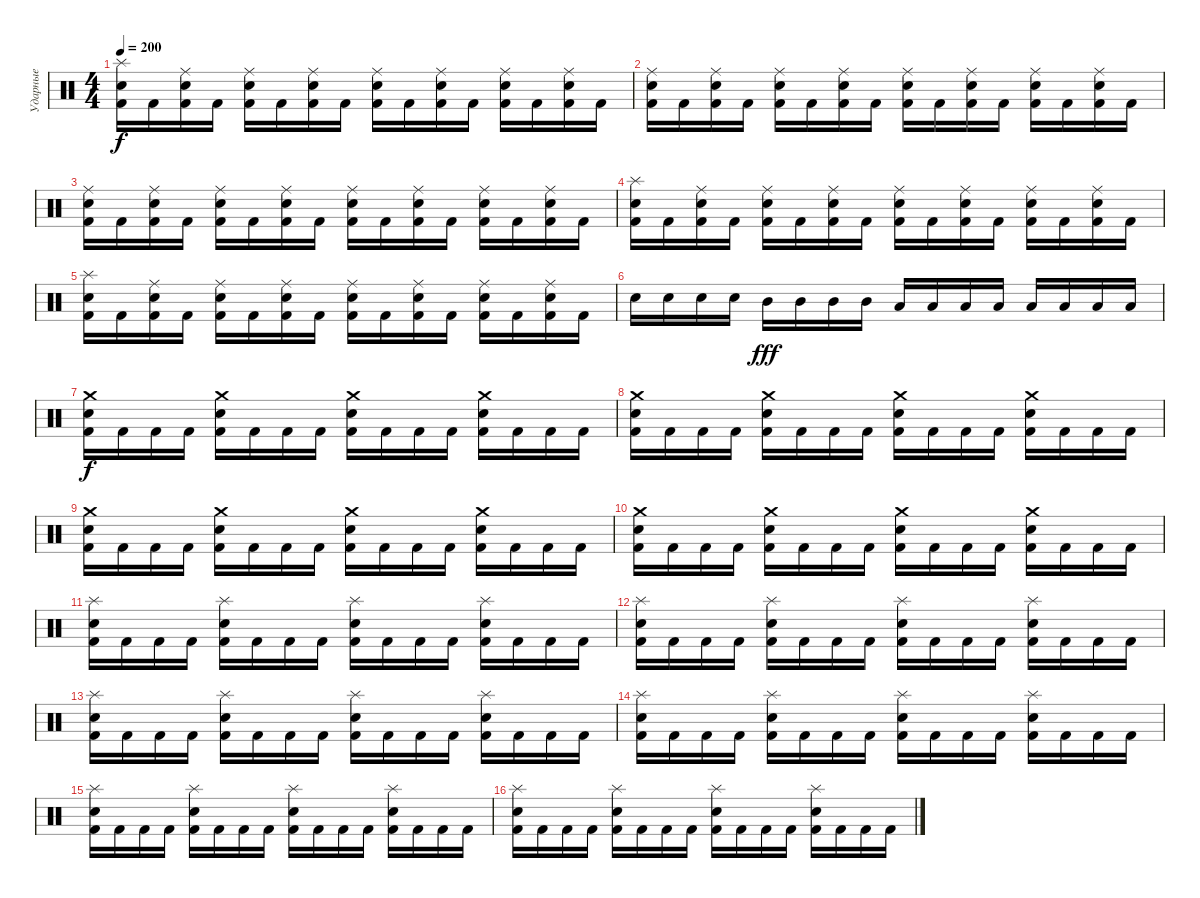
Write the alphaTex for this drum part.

\track ("Ударные" "Ударные") {instrument percussion}
\staff {score}
\articulation defaults
\ts (4 4)
\tempo 200
\clef neutral
\ks c
("Splash (hit)" "Electric Snare (hit)" "Kick (hit) 2").16{dy f} "Kick (hit) 2".16 ("Ride (middle)" "Electric Snare (hit)" "Kick (hit) 2").16 "Kick (hit) 2".16 ("Ride (middle)" "Electric Snare (hit)" "Kick (hit) 2").16 "Kick (hit) 2".16 ("Ride (middle)" "Electric Snare (hit)" "Kick (hit) 2").16 "Kick (hit) 2".16 ("Ride (middle)" "Electric Snare (hit)" "Kick (hit) 2").16 "Kick (hit) 2".16 ("Ride (middle)" "Electric Snare (hit)" "Kick (hit) 2").16 "Kick (hit) 2".16 ("Ride (middle)" "Electric Snare (hit)" "Kick (hit) 2").16 "Kick (hit) 2".16 ("Ride (middle)" "Electric Snare (hit)" "Kick (hit) 2").16 "Kick (hit) 2".16 |
("Ride (middle)" "Electric Snare (hit)" "Kick (hit) 2").16 "Kick (hit) 2".16 ("Ride (middle)" "Electric Snare (hit)" "Kick (hit) 2").16 "Kick (hit) 2".16 ("Ride (middle)" "Electric Snare (hit)" "Kick (hit) 2").16 "Kick (hit) 2".16 ("Ride (middle)" "Electric Snare (hit)" "Kick (hit) 2").16 "Kick (hit) 2".16 ("Ride (middle)" "Electric Snare (hit)" "Kick (hit) 2").16 "Kick (hit) 2".16 ("Ride (middle)" "Electric Snare (hit)" "Kick (hit) 2").16 "Kick (hit) 2".16 ("Ride (middle)" "Electric Snare (hit)" "Kick (hit) 2").16 "Kick (hit) 2".16 ("Ride (middle)" "Electric Snare (hit)" "Kick (hit) 2").16 "Kick (hit) 2".16 |
("Ride (middle)" "Electric Snare (hit)" "Kick (hit) 2").16 "Kick (hit) 2".16 ("Ride (middle)" "Electric Snare (hit)" "Kick (hit) 2").16 "Kick (hit) 2".16 ("Ride (middle)" "Electric Snare (hit)" "Kick (hit) 2").16 "Kick (hit) 2".16 ("Ride (middle)" "Electric Snare (hit)" "Kick (hit) 2").16 "Kick (hit) 2".16 ("Ride (middle)" "Electric Snare (hit)" "Kick (hit) 2").16 "Kick (hit) 2".16 ("Ride (middle)" "Electric Snare (hit)" "Kick (hit) 2").16 "Kick (hit) 2".16 ("Ride (middle)" "Electric Snare (hit)" "Kick (hit) 2").16 "Kick (hit) 2".16 ("Ride (middle)" "Electric Snare (hit)" "Kick (hit) 2").16 "Kick (hit) 2".16 |
("Splash (hit)" "Electric Snare (hit)" "Kick (hit) 2").16 "Kick (hit) 2".16 ("Ride (middle)" "Electric Snare (hit)" "Kick (hit) 2").16 "Kick (hit) 2".16 ("Ride (middle)" "Electric Snare (hit)" "Kick (hit) 2").16 "Kick (hit) 2".16 ("Ride (middle)" "Electric Snare (hit)" "Kick (hit) 2").16 "Kick (hit) 2".16 ("Ride (middle)" "Electric Snare (hit)" "Kick (hit) 2").16 "Kick (hit) 2".16 ("Ride (middle)" "Electric Snare (hit)" "Kick (hit) 2").16 "Kick (hit) 2".16 ("Ride (middle)" "Electric Snare (hit)" "Kick (hit) 2").16 "Kick (hit) 2".16 ("Ride (middle)" "Electric Snare (hit)" "Kick (hit) 2").16 "Kick (hit) 2".16 |
("Splash (hit)" "Electric Snare (hit)" "Kick (hit) 2").16 "Kick (hit) 2".16 ("Ride (middle)" "Electric Snare (hit)" "Kick (hit) 2").16 "Kick (hit) 2".16 ("Ride (middle)" "Electric Snare (hit)" "Kick (hit) 2").16 "Kick (hit) 2".16 ("Ride (middle)" "Electric Snare (hit)" "Kick (hit) 2").16 "Kick (hit) 2".16 ("Ride (middle)" "Electric Snare (hit)" "Kick (hit) 2").16 "Kick (hit) 2".16 ("Ride (middle)" "Electric Snare (hit)" "Kick (hit) 2").16 "Kick (hit) 2".16 ("Ride (middle)" "Electric Snare (hit)" "Kick (hit) 2").16 "Kick (hit) 2".16 ("Ride (middle)" "Electric Snare (hit)" "Kick (hit) 2").16 "Kick (hit) 2".16 |
"Snare (hit) 2".16 "Snare (hit) 2".16 "Snare (hit) 2".16 "Snare (hit) 2".16 "Mid Tom (hit)".16{dy fff} "Mid Tom (hit)".16 "Mid Tom (hit)".16 "Mid Tom (hit)".16 "Low Tom (hit)".16 "Low Tom (hit)".16 "Low Tom (hit)".16 "Low Tom (hit)".16 "Low Floor Tom (hit)".16 "Low Floor Tom (hit)".16 "Low Floor Tom (hit)".16 "Low Floor Tom (hit)".16 |
("Crash medium (hit)" "Electric Snare (hit)" "Kick (hit) 2").16{dy f} "Kick (hit) 2".16 "Kick (hit) 2".16 "Kick (hit) 2".16 ("Crash medium (hit)" "Electric Snare (hit)" "Kick (hit) 2").16 "Kick (hit) 2".16 "Kick (hit) 2".16 "Kick (hit) 2".16 ("Crash medium (hit)" "Electric Snare (hit)" "Kick (hit) 2").16 "Kick (hit) 2".16 "Kick (hit) 2".16 "Kick (hit) 2".16 ("Crash medium (hit)" "Electric Snare (hit)" "Kick (hit) 2").16 "Kick (hit) 2".16 "Kick (hit) 2".16 "Kick (hit) 2".16 |
("Crash medium (hit)" "Electric Snare (hit)" "Kick (hit) 2").16 "Kick (hit) 2".16 "Kick (hit) 2".16 "Kick (hit) 2".16 ("Crash medium (hit)" "Electric Snare (hit)" "Kick (hit) 2").16 "Kick (hit) 2".16 "Kick (hit) 2".16 "Kick (hit) 2".16 ("Crash medium (hit)" "Electric Snare (hit)" "Kick (hit) 2").16 "Kick (hit) 2".16 "Kick (hit) 2".16 "Kick (hit) 2".16 ("Crash medium (hit)" "Electric Snare (hit)" "Kick (hit) 2").16 "Kick (hit) 2".16 "Kick (hit) 2".16 "Kick (hit) 2".16 |
("Crash medium (hit)" "Electric Snare (hit)" "Kick (hit) 2").16 "Kick (hit) 2".16 "Kick (hit) 2".16 "Kick (hit) 2".16 ("Crash medium (hit)" "Electric Snare (hit)" "Kick (hit) 2").16 "Kick (hit) 2".16 "Kick (hit) 2".16 "Kick (hit) 2".16 ("Crash medium (hit)" "Electric Snare (hit)" "Kick (hit) 2").16 "Kick (hit) 2".16 "Kick (hit) 2".16 "Kick (hit) 2".16 ("Crash medium (hit)" "Electric Snare (hit)" "Kick (hit) 2").16 "Kick (hit) 2".16 "Kick (hit) 2".16 "Kick (hit) 2".16 |
("Crash medium (hit)" "Electric Snare (hit)" "Kick (hit) 2").16 "Kick (hit) 2".16 "Kick (hit) 2".16 "Kick (hit) 2".16 ("Crash medium (hit)" "Electric Snare (hit)" "Kick (hit) 2").16 "Kick (hit) 2".16 "Kick (hit) 2".16 "Kick (hit) 2".16 ("Crash medium (hit)" "Electric Snare (hit)" "Kick (hit) 2").16 "Kick (hit) 2".16 "Kick (hit) 2".16 "Kick (hit) 2".16 ("Crash medium (hit)" "Electric Snare (hit)" "Kick (hit) 2").16 "Kick (hit) 2".16 "Kick (hit) 2".16 "Kick (hit) 2".16 |
("Splash (hit)" "Electric Snare (hit)" "Kick (hit) 2").16 "Kick (hit) 2".16 "Kick (hit) 2".16 "Kick (hit) 2".16 ("Splash (hit)" "Electric Snare (hit)" "Kick (hit) 2").16 "Kick (hit) 2".16 "Kick (hit) 2".16 "Kick (hit) 2".16 ("Splash (hit)" "Electric Snare (hit)" "Kick (hit) 2").16 "Kick (hit) 2".16 "Kick (hit) 2".16 "Kick (hit) 2".16 ("Splash (hit)" "Electric Snare (hit)" "Kick (hit) 2").16 "Kick (hit) 2".16 "Kick (hit) 2".16 "Kick (hit) 2".16 |
("Splash (hit)" "Electric Snare (hit)" "Kick (hit) 2").16 "Kick (hit) 2".16 "Kick (hit) 2".16 "Kick (hit) 2".16 ("Splash (hit)" "Electric Snare (hit)" "Kick (hit) 2").16 "Kick (hit) 2".16 "Kick (hit) 2".16 "Kick (hit) 2".16 ("Splash (hit)" "Electric Snare (hit)" "Kick (hit) 2").16 "Kick (hit) 2".16 "Kick (hit) 2".16 "Kick (hit) 2".16 ("Splash (hit)" "Electric Snare (hit)" "Kick (hit) 2").16 "Kick (hit) 2".16 "Kick (hit) 2".16 "Kick (hit) 2".16 |
("Splash (hit)" "Electric Snare (hit)" "Kick (hit) 2").16 "Kick (hit) 2".16 "Kick (hit) 2".16 "Kick (hit) 2".16 ("Splash (hit)" "Electric Snare (hit)" "Kick (hit) 2").16 "Kick (hit) 2".16 "Kick (hit) 2".16 "Kick (hit) 2".16 ("Splash (hit)" "Electric Snare (hit)" "Kick (hit) 2").16 "Kick (hit) 2".16 "Kick (hit) 2".16 "Kick (hit) 2".16 ("Splash (hit)" "Electric Snare (hit)" "Kick (hit) 2").16 "Kick (hit) 2".16 "Kick (hit) 2".16 "Kick (hit) 2".16 |
("Splash (hit)" "Electric Snare (hit)" "Kick (hit) 2").16 "Kick (hit) 2".16 "Kick (hit) 2".16 "Kick (hit) 2".16 ("Splash (hit)" "Electric Snare (hit)" "Kick (hit) 2").16 "Kick (hit) 2".16 "Kick (hit) 2".16 "Kick (hit) 2".16 ("Splash (hit)" "Electric Snare (hit)" "Kick (hit) 2").16 "Kick (hit) 2".16 "Kick (hit) 2".16 "Kick (hit) 2".16 ("Splash (hit)" "Electric Snare (hit)" "Kick (hit) 2").16 "Kick (hit) 2".16 "Kick (hit) 2".16 "Kick (hit) 2".16 |
("Splash (hit)" "Electric Snare (hit)" "Kick (hit) 2").16 "Kick (hit) 2".16 "Kick (hit) 2".16 "Kick (hit) 2".16 ("Splash (hit)" "Electric Snare (hit)" "Kick (hit) 2").16 "Kick (hit) 2".16 "Kick (hit) 2".16 "Kick (hit) 2".16 ("Splash (hit)" "Electric Snare (hit)" "Kick (hit) 2").16 "Kick (hit) 2".16 "Kick (hit) 2".16 "Kick (hit) 2".16 ("Splash (hit)" "Electric Snare (hit)" "Kick (hit) 2").16 "Kick (hit) 2".16 "Kick (hit) 2".16 "Kick (hit) 2".16 |
("Splash (hit)" "Electric Snare (hit)" "Kick (hit) 2").16 "Kick (hit) 2".16 "Kick (hit) 2".16 "Kick (hit) 2".16 ("Splash (hit)" "Electric Snare (hit)" "Kick (hit) 2").16 "Kick (hit) 2".16 "Kick (hit) 2".16 "Kick (hit) 2".16 ("Splash (hit)" "Electric Snare (hit)" "Kick (hit) 2").16 "Kick (hit) 2".16 "Kick (hit) 2".16 "Kick (hit) 2".16 ("Splash (hit)" "Electric Snare (hit)" "Kick (hit) 2").16 "Kick (hit) 2".16 "Kick (hit) 2".16 "Kick (hit) 2".16
